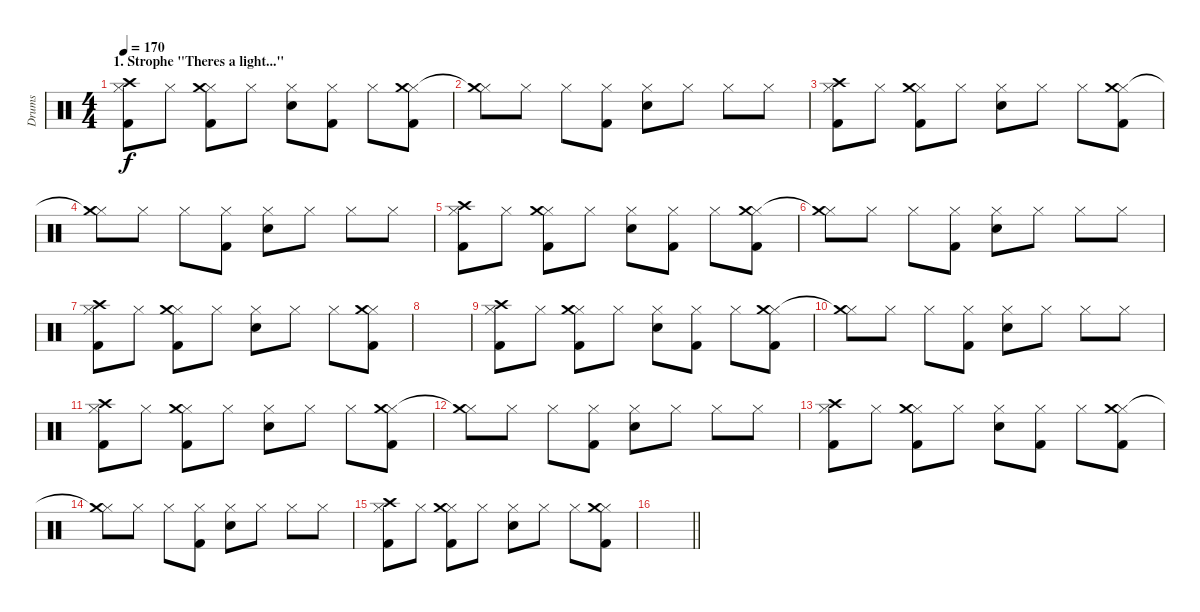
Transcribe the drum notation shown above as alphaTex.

\track ("Drums" "Drums") {instrument percussion}
\staff {score}
\articulation defaults
\ts (4 4)
\section ("" "1. Strophe \"Theres a light...\"")
\tempo 170
\clef neutral
\ks c
("Hi-Hat (closed)" "Crash high (hit)" "Kick (hit) 2").8{dy f} "Hi-Hat (closed)".8 ("Hi-Hat (closed)" "Crash medium (hit)" "Kick (hit) 2").8 "Hi-Hat (closed)".8 ("Hi-Hat (closed)" "Electric Snare (hit)").8 ("Hi-Hat (closed)" "Kick (hit) 2").8 "Hi-Hat (closed)".8 ("Hi-Hat (closed)" "Crash medium (hit)" "Kick (hit) 2").8 |
("Hi-Hat (closed)" "Crash medium (hit)"{t}).8 "Hi-Hat (closed)".8 "Hi-Hat (closed)".8 ("Hi-Hat (closed)" "Kick (hit) 2").8 ("Hi-Hat (closed)" "Electric Snare (hit)").8 "Hi-Hat (closed)".8 "Hi-Hat (closed)".8 "Hi-Hat (closed)".8 |
("Hi-Hat (closed)" "Crash high (hit)" "Kick (hit) 2").8 "Hi-Hat (closed)".8 ("Hi-Hat (closed)" "Crash medium (hit)" "Kick (hit) 2").8 "Hi-Hat (closed)".8 ("Hi-Hat (closed)" "Electric Snare (hit)").8 "Hi-Hat (closed)".8 "Hi-Hat (closed)".8 ("Hi-Hat (closed)" "Crash medium (hit)" "Kick (hit) 2").8 |
("Hi-Hat (closed)" "Crash medium (hit)"{t}).8 "Hi-Hat (closed)".8 "Hi-Hat (closed)".8 ("Hi-Hat (closed)" "Kick (hit) 2").8 ("Hi-Hat (closed)" "Electric Snare (hit)").8 "Hi-Hat (closed)".8 "Hi-Hat (closed)".8 "Hi-Hat (closed)".8 |
("Hi-Hat (closed)" "Crash high (hit)" "Kick (hit) 2").8 "Hi-Hat (closed)".8 ("Hi-Hat (closed)" "Crash medium (hit)" "Kick (hit) 2").8 "Hi-Hat (closed)".8 ("Hi-Hat (closed)" "Electric Snare (hit)").8 ("Hi-Hat (closed)" "Kick (hit) 2").8 "Hi-Hat (closed)".8 ("Hi-Hat (closed)" "Crash medium (hit)" "Kick (hit) 2").8 |
("Hi-Hat (closed)" "Crash medium (hit)"{t}).8 "Hi-Hat (closed)".8 "Hi-Hat (closed)".8 ("Hi-Hat (closed)" "Kick (hit) 2").8 ("Hi-Hat (closed)" "Electric Snare (hit)").8 "Hi-Hat (closed)".8 "Hi-Hat (closed)".8 "Hi-Hat (closed)".8 |
("Hi-Hat (closed)" "Crash high (hit)" "Kick (hit) 2").8 "Hi-Hat (closed)".8 ("Hi-Hat (closed)" "Crash medium (hit)" "Kick (hit) 2").8 "Hi-Hat (closed)".8 ("Hi-Hat (closed)" "Electric Snare (hit)").8 "Hi-Hat (closed)".8 "Hi-Hat (closed)".8 ("Hi-Hat (closed)" "Crash medium (hit)" "Kick (hit) 2").8 |
|
("Hi-Hat (closed)" "Crash high (hit)" "Kick (hit) 2").8 "Hi-Hat (closed)".8 ("Hi-Hat (closed)" "Crash medium (hit)" "Kick (hit) 2").8 "Hi-Hat (closed)".8 ("Hi-Hat (closed)" "Electric Snare (hit)").8 ("Hi-Hat (closed)" "Kick (hit) 2").8 "Hi-Hat (closed)".8 ("Hi-Hat (closed)" "Crash medium (hit)" "Kick (hit) 2").8 |
("Hi-Hat (closed)" "Crash medium (hit)"{t}).8 "Hi-Hat (closed)".8 "Hi-Hat (closed)".8 ("Hi-Hat (closed)" "Kick (hit) 2").8 ("Hi-Hat (closed)" "Electric Snare (hit)").8 "Hi-Hat (closed)".8 "Hi-Hat (closed)".8 "Hi-Hat (closed)".8 |
("Hi-Hat (closed)" "Crash high (hit)" "Kick (hit) 2").8 "Hi-Hat (closed)".8 ("Hi-Hat (closed)" "Crash medium (hit)" "Kick (hit) 2").8 "Hi-Hat (closed)".8 ("Hi-Hat (closed)" "Electric Snare (hit)").8 "Hi-Hat (closed)".8 "Hi-Hat (closed)".8 ("Hi-Hat (closed)" "Crash medium (hit)" "Kick (hit) 2").8 |
("Hi-Hat (closed)" "Crash medium (hit)"{t}).8 "Hi-Hat (closed)".8 "Hi-Hat (closed)".8 ("Hi-Hat (closed)" "Kick (hit) 2").8 ("Hi-Hat (closed)" "Electric Snare (hit)").8 "Hi-Hat (closed)".8 "Hi-Hat (closed)".8 "Hi-Hat (closed)".8 |
("Hi-Hat (closed)" "Crash high (hit)" "Kick (hit) 2").8 "Hi-Hat (closed)".8 ("Hi-Hat (closed)" "Crash medium (hit)" "Kick (hit) 2").8 "Hi-Hat (closed)".8 ("Hi-Hat (closed)" "Electric Snare (hit)").8 ("Hi-Hat (closed)" "Kick (hit) 2").8 "Hi-Hat (closed)".8 ("Hi-Hat (closed)" "Crash medium (hit)" "Kick (hit) 2").8 |
("Hi-Hat (closed)" "Crash medium (hit)"{t}).8 "Hi-Hat (closed)".8 "Hi-Hat (closed)".8 ("Hi-Hat (closed)" "Kick (hit) 2").8 ("Hi-Hat (closed)" "Electric Snare (hit)").8 "Hi-Hat (closed)".8 "Hi-Hat (closed)".8 "Hi-Hat (closed)".8 |
("Hi-Hat (closed)" "Crash high (hit)" "Kick (hit) 2").8 "Hi-Hat (closed)".8 ("Hi-Hat (closed)" "Crash medium (hit)" "Kick (hit) 2").8 "Hi-Hat (closed)".8 ("Hi-Hat (closed)" "Electric Snare (hit)").8 "Hi-Hat (closed)".8 "Hi-Hat (closed)".8 ("Hi-Hat (closed)" "Crash medium (hit)" "Kick (hit) 2").8 |
\barLineRight lightlight
